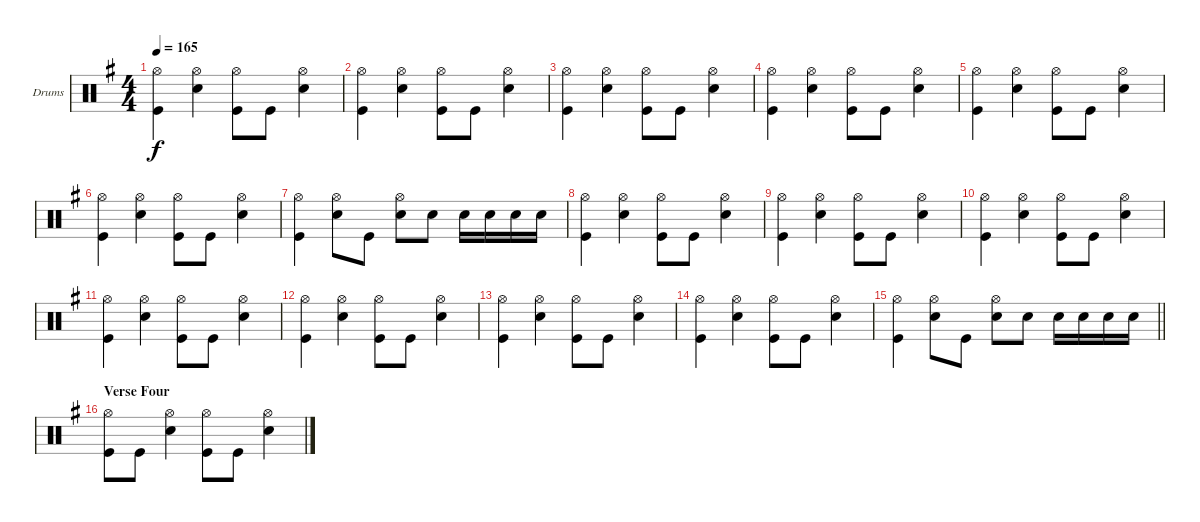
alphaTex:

\bracketExtendMode groupsimilarinstruments
\firstSystemTrackNameOrientation horizontal
\otherSystemsTrackNameOrientation horizontal
\track ("Drumkit" "Drums") {instrument percussion}
\staff {score}
\articulation defaults
\ts (4 4)
\tempo 165
\clef neutral
\ks eminor
("Hi-Hat (open)" "Kick (hit)").4{dy f} ("Hi-Hat (open)" "Snare (hit) 2").4 ("Hi-Hat (open)" "Kick (hit)").8 "Kick (hit)".8 ("Hi-Hat (open)" "Snare (hit) 2").4 |
("Hi-Hat (open)" "Kick (hit)").4 ("Hi-Hat (open)" "Snare (hit) 2").4 ("Hi-Hat (open)" "Kick (hit)").8 "Kick (hit)".8 ("Hi-Hat (open)" "Snare (hit) 2").4 |
("Hi-Hat (open)" "Kick (hit)").4 ("Hi-Hat (open)" "Snare (hit) 2").4 ("Hi-Hat (open)" "Kick (hit)").8 "Kick (hit)".8 ("Hi-Hat (open)" "Snare (hit) 2").4 |
("Hi-Hat (open)" "Kick (hit)").4 ("Hi-Hat (open)" "Snare (hit) 2").4 ("Hi-Hat (open)" "Kick (hit)").8 "Kick (hit)".8 ("Hi-Hat (open)" "Snare (hit) 2").4 |
("Hi-Hat (open)" "Kick (hit)").4 ("Hi-Hat (open)" "Snare (hit) 2").4 ("Hi-Hat (open)" "Kick (hit)").8 "Kick (hit)".8 ("Hi-Hat (open)" "Snare (hit) 2").4 |
("Hi-Hat (open)" "Kick (hit)").4 ("Hi-Hat (open)" "Snare (hit) 2").4 ("Hi-Hat (open)" "Kick (hit)").8 "Kick (hit)".8 ("Hi-Hat (open)" "Snare (hit) 2").4 |
("Hi-Hat (open)" "Kick (hit)").4 ("Hi-Hat (open)" "Snare (hit) 2").8 "Kick (hit)".8 ("Hi-Hat (open)" "Snare (hit) 2").8 "Snare (hit) 2".8 "Snare (hit) 2".16 "Snare (hit) 2".16 "Snare (hit) 2".16 "Snare (hit) 2".16 |
("Hi-Hat (open)" "Kick (hit)").4 ("Hi-Hat (open)" "Snare (hit) 2").4 ("Hi-Hat (open)" "Kick (hit)").8 "Kick (hit)".8 ("Hi-Hat (open)" "Snare (hit) 2").4 |
("Hi-Hat (open)" "Kick (hit)").4 ("Hi-Hat (open)" "Snare (hit) 2").4 ("Hi-Hat (open)" "Kick (hit)").8 "Kick (hit)".8 ("Hi-Hat (open)" "Snare (hit) 2").4 |
("Hi-Hat (open)" "Kick (hit)").4 ("Hi-Hat (open)" "Snare (hit) 2").4 ("Hi-Hat (open)" "Kick (hit)").8 "Kick (hit)".8 ("Hi-Hat (open)" "Snare (hit) 2").4 |
("Hi-Hat (open)" "Kick (hit)").4 ("Hi-Hat (open)" "Snare (hit) 2").4 ("Hi-Hat (open)" "Kick (hit)").8 "Kick (hit)".8 ("Hi-Hat (open)" "Snare (hit) 2").4 |
("Hi-Hat (open)" "Kick (hit)").4 ("Hi-Hat (open)" "Snare (hit) 2").4 ("Hi-Hat (open)" "Kick (hit)").8 "Kick (hit)".8 ("Hi-Hat (open)" "Snare (hit) 2").4 |
("Hi-Hat (open)" "Kick (hit)").4 ("Hi-Hat (open)" "Snare (hit) 2").4 ("Hi-Hat (open)" "Kick (hit)").8 "Kick (hit)".8 ("Hi-Hat (open)" "Snare (hit) 2").4 |
("Hi-Hat (open)" "Kick (hit)").4 ("Hi-Hat (open)" "Snare (hit) 2").4 ("Hi-Hat (open)" "Kick (hit)").8 "Kick (hit)".8 ("Hi-Hat (open)" "Snare (hit) 2").4 |
\barLineRight lightlight
("Hi-Hat (open)" "Kick (hit)").4 ("Hi-Hat (open)" "Snare (hit) 2").8 "Kick (hit)".8 ("Hi-Hat (open)" "Snare (hit) 2").8 "Snare (hit) 2".8 "Snare (hit) 2".16 "Snare (hit) 2".16 "Snare (hit) 2".16 "Snare (hit) 2".16 |
\section ("" "Verse Four")
("Hi-Hat (open)" "Kick (hit)").8 "Kick (hit)".8 ("Hi-Hat (open)" "Snare (hit) 2").4 ("Hi-Hat (open)" "Kick (hit)").8 "Kick (hit)".8 ("Hi-Hat (open)" "Snare (hit) 2").4
